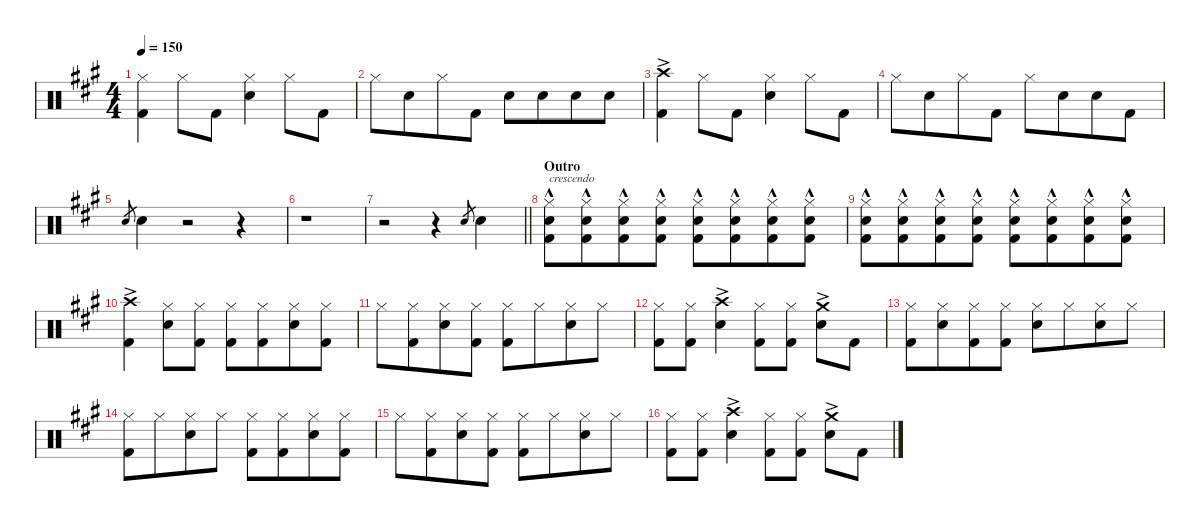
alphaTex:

\defaultSystemsLayout 4
\hideDynamics
\bracketExtendMode nobrackets
\singleTrackTrackNamePolicy hidden
\multiTrackTrackNamePolicy hidden
\firstSystemTrackNameMode fullname
\firstSystemTrackNameOrientation horizontal
\otherSystemsTrackNameOrientation horizontal
\track ("Drums" "drm.") {instrument percussion}
\staff {score}
\articulation defaults
\ts (4 4)
\tempo 150
\clef neutral
\ks a
("Hi-Hat (closed)"{acc forcenatural} "Kick (hit) 2"{acc forcenatural}).4{dy f beam Down} "Hi-Hat (closed)"{acc forcenatural}.8{beam Down} "Kick (hit) 2"{acc forcenatural}.8{beam Down} ("Hi-Hat (closed)"{acc forcenatural} "Snare (hit) 2"{acc forcenatural}).4{beam Down} "Hi-Hat (closed)"{acc forcenatural}.8{beam Down} "Kick (hit) 2"{acc forcenatural}.8{beam Down} |
"Hi-Hat (closed)"{acc forcenatural}.8{beam Down} "Snare (hit) 2"{acc forcenatural}.8{beam Down beam merge} "Hi-Hat (closed)"{acc forcenatural}.8{beam Down} "Kick (hit) 2"{acc forcenatural}.8{beam Down} "Snare (hit) 2"{acc forcenatural}.8{beam Down} "Snare (hit) 2"{acc forcenatural}.8{beam Down beam merge} "Snare (hit) 2"{acc forcenatural}.8{beam Down} "Snare (hit) 2"{acc forcenatural}.8{beam Down} |
("Crash high (hit)"{ac acc forcenatural} "Kick (hit) 2"{acc forcenatural}).4{beam Down} "Hi-Hat (closed)"{acc forcenatural}.8{beam Down} "Kick (hit) 2"{acc forcenatural}.8{beam Down} ("Hi-Hat (closed)"{acc forcenatural} "Snare (hit) 2"{acc forcenatural}).4{beam Down} "Hi-Hat (closed)"{acc forcenatural}.8{beam Down} "Kick (hit) 2"{acc forcenatural}.8{beam Down} |
"Hi-Hat (closed)"{acc forcenatural}.8{beam Down} "Snare (hit) 2"{acc forcenatural}.8{beam Down beam merge} "Hi-Hat (closed)"{acc forcenatural}.8{beam Down} "Kick (hit) 2"{acc forcenatural}.8{beam Down} "Hi-Hat (closed)"{acc forcenatural}.8{beam Down} "Snare (hit) 2"{acc forcenatural}.8{beam Down beam merge} "Snare (hit) 2"{acc forcenatural}.8{beam Down} "Kick (hit) 2"{acc forcenatural}.8{beam Down} |
"Snare (hit) 2"{acc forcenatural}.8{gr dy mf beam Up} "Snare (hit) 2"{acc forcenatural}.4{dy f beam Down} r.2{beam Down} r.4{beam Down} |
r.1{beam Down} |
\barLineRight lightlight
r.2{beam Down} r.4{beam Down} "Snare (hit) 2"{acc forcenatural}.8{gr dy mf beam Up} "Snare (hit) 2"{acc forcenatural}.4{dy f beam Down} |
\section ("" "Outro")
("Hi-Hat (closed)"{hac acc forcenatural} "Snare (hit) 2"{acc forcenatural} "Kick (hit) 2"{acc forcenatural}).8{txt "crescendo" dy ppp beam Down} ("Hi-Hat (closed)"{hac acc forcenatural} "Snare (hit) 2"{acc forcenatural} "Kick (hit) 2"{acc forcenatural}).8{beam Down beam merge} ("Hi-Hat (closed)"{hac acc forcenatural} "Snare (hit) 2"{acc forcenatural} "Kick (hit) 2"{acc forcenatural}).8{dy pp beam Down} ("Hi-Hat (closed)"{hac acc forcenatural} "Snare (hit) 2"{acc forcenatural} "Kick (hit) 2"{acc forcenatural}).8{beam Down} ("Hi-Hat (closed)"{hac acc forcenatural} "Snare (hit) 2"{acc forcenatural} "Kick (hit) 2"{acc forcenatural}).8{dy p beam Down} ("Hi-Hat (closed)"{hac acc forcenatural} "Snare (hit) 2"{acc forcenatural} "Kick (hit) 2"{acc forcenatural}).8{beam Down beam merge} ("Hi-Hat (closed)"{hac acc forcenatural} "Snare (hit) 2"{acc forcenatural} "Kick (hit) 2"{acc forcenatural}).8{dy mp beam Down} ("Hi-Hat (closed)"{hac acc forcenatural} "Snare (hit) 2"{acc forcenatural} "Kick (hit) 2"{acc forcenatural}).8{beam Down} |
("Hi-Hat (closed)"{hac acc forcenatural} "Snare (hit) 2"{acc forcenatural} "Kick (hit) 2"{acc forcenatural}).8{dy mf beam Down} ("Hi-Hat (closed)"{hac acc forcenatural} "Snare (hit) 2"{acc forcenatural} "Kick (hit) 2"{acc forcenatural}).8{beam Down beam merge} ("Hi-Hat (closed)"{hac acc forcenatural} "Snare (hit) 2"{acc forcenatural} "Kick (hit) 2"{acc forcenatural}).8{dy f beam Down} ("Hi-Hat (closed)"{hac acc forcenatural} "Snare (hit) 2"{acc forcenatural} "Kick (hit) 2"{acc forcenatural}).8{beam Down} ("Hi-Hat (closed)"{hac acc forcenatural} "Snare (hit) 2"{acc forcenatural} "Kick (hit) 2"{acc forcenatural}).8{dy ff beam Down} ("Hi-Hat (closed)"{hac acc forcenatural} "Snare (hit) 2"{acc forcenatural} "Kick (hit) 2"{acc forcenatural}).8{beam Down beam merge} ("Hi-Hat (closed)"{hac acc forcenatural} "Snare (hit) 2"{acc forcenatural} "Kick (hit) 2"{acc forcenatural}).8{dy fff beam Down} ("Hi-Hat (closed)"{hac acc forcenatural} "Snare (hit) 2"{acc forcenatural} "Kick (hit) 2"{acc forcenatural}).8{beam Down} |
("Crash high (hit)"{ac acc forcenatural} "Kick (hit) 2"{acc forcenatural}).4{dy f beam Down beam merge} ("Hi-Hat (closed)"{acc forcenatural} "Snare (hit) 2"{acc forcenatural}).8{beam Down} ("Hi-Hat (closed)"{acc forcenatural} "Kick (hit) 2"{acc forcenatural}).8{beam Down} ("Hi-Hat (closed)"{acc forcenatural} "Kick (hit) 2"{acc forcenatural}).8{beam Down} ("Hi-Hat (closed)"{acc forcenatural} "Kick (hit) 2"{acc forcenatural}).8{beam Down beam merge} ("Hi-Hat (closed)"{acc forcenatural} "Snare (hit) 2"{acc forcenatural}).8{beam Down} ("Hi-Hat (closed)"{acc forcenatural} "Kick (hit) 2"{acc forcenatural}).8{beam Down} |
"Hi-Hat (closed)"{acc forcenatural}.8{beam Down} ("Hi-Hat (closed)"{acc forcenatural} "Kick (hit) 2"{acc forcenatural}).8{beam Down beam merge} ("Hi-Hat (closed)"{acc forcenatural} "Snare (hit) 2"{acc forcenatural}).8{beam Down} ("Hi-Hat (closed)"{acc forcenatural} "Kick (hit) 2"{acc forcenatural}).8{beam Down} ("Hi-Hat (closed)"{acc forcenatural} "Kick (hit) 2"{acc forcenatural}).8{beam Down} "Hi-Hat (closed)"{acc forcenatural}.8{beam Down beam merge} ("Hi-Hat (closed)"{acc forcenatural} "Snare (hit) 2"{acc forcenatural}).8{beam Down} "Hi-Hat (closed)"{acc forcenatural}.8{beam Down} |
("Hi-Hat (closed)"{acc forcenatural} "Kick (hit) 2"{acc forcenatural}).8{beam Down} ("Hi-Hat (closed)"{acc forcenatural} "Kick (hit) 2"{acc forcenatural}).8{beam Down} ("Crash high (hit)"{ac acc forcenatural} "Snare (hit) 2"{acc forcenatural}).4{beam Down} ("Hi-Hat (closed)"{acc forcenatural} "Kick (hit) 2"{acc forcenatural}).8{beam Down} ("Hi-Hat (closed)"{acc forcenatural} "Kick (hit) 2"{acc forcenatural}).8{beam Down} ("Crash medium (hit)"{ac acc forcenatural} "Snare (hit) 2"{acc forcenatural}).8{beam Down} "Kick (hit) 2"{acc forcenatural}.8{beam Down} |
("Hi-Hat (closed)"{acc forcenatural} "Kick (hit) 2"{acc forcenatural}).8{beam Down} ("Hi-Hat (closed)"{acc forcenatural} "Snare (hit) 2"{acc forcenatural}).8{beam Down beam merge} ("Hi-Hat (closed)"{acc forcenatural} "Kick (hit) 2"{acc forcenatural}).8{beam Down} ("Hi-Hat (closed)"{acc forcenatural} "Kick (hit) 2"{acc forcenatural}).8{beam Down} ("Hi-Hat (closed)"{acc forcenatural} "Snare (hit) 2"{acc forcenatural}).8{beam Down} "Hi-Hat (closed)"{acc forcenatural}.8{beam Down beam merge} ("Hi-Hat (closed)"{acc forcenatural} "Snare (hit) 2"{acc forcenatural}).8{beam Down} "Hi-Hat (closed)"{acc forcenatural}.8{beam Down} |
("Hi-Hat (closed)"{acc forcenatural} "Kick (hit) 2"{acc forcenatural}).8{beam Down} "Hi-Hat (closed)"{acc forcenatural}.8{beam Down beam merge} ("Hi-Hat (closed)"{acc forcenatural} "Snare (hit) 2"{acc forcenatural}).8{beam Down} "Hi-Hat (closed)"{acc forcenatural}.8{beam Down} ("Hi-Hat (closed)"{acc forcenatural} "Kick (hit) 2"{acc forcenatural}).8{beam Down} ("Hi-Hat (closed)"{acc forcenatural} "Kick (hit) 2"{acc forcenatural}).8{beam Down beam merge} ("Hi-Hat (closed)"{acc forcenatural} "Snare (hit) 2"{acc forcenatural}).8{beam Down} ("Hi-Hat (closed)"{acc forcenatural} "Kick (hit) 2"{acc forcenatural}).8{beam Down} |
"Hi-Hat (closed)"{acc forcenatural}.8{beam Down} ("Hi-Hat (closed)"{acc forcenatural} "Kick (hit) 2"{acc forcenatural}).8{beam Down beam merge} ("Hi-Hat (closed)"{acc forcenatural} "Snare (hit) 2"{acc forcenatural}).8{beam Down} ("Hi-Hat (closed)"{acc forcenatural} "Kick (hit) 2"{acc forcenatural}).8{beam Down} ("Hi-Hat (closed)"{acc forcenatural} "Kick (hit) 2"{acc forcenatural}).8{beam Down} "Hi-Hat (closed)"{acc forcenatural}.8{beam Down beam merge} ("Hi-Hat (closed)"{acc forcenatural} "Snare (hit) 2"{acc forcenatural}).8{beam Down} "Hi-Hat (closed)"{acc forcenatural}.8{beam Down} |
("Hi-Hat (closed)"{acc forcenatural} "Kick (hit) 2"{acc forcenatural}).8{beam Down} ("Hi-Hat (closed)"{acc forcenatural} "Kick (hit) 2"{acc forcenatural}).8{beam Down} ("Crash high (hit)"{ac acc forcenatural} "Snare (hit) 2"{acc forcenatural}).4{beam Down} ("Hi-Hat (closed)"{acc forcenatural} "Kick (hit) 2"{acc forcenatural}).8{beam Down} ("Hi-Hat (closed)"{acc forcenatural} "Kick (hit) 2"{acc forcenatural}).8{beam Down} ("Crash medium (hit)"{ac acc forcenatural} "Snare (hit) 2"{acc forcenatural}).8{beam Down} "Kick (hit) 2"{acc forcenatural}.8{beam Down}
